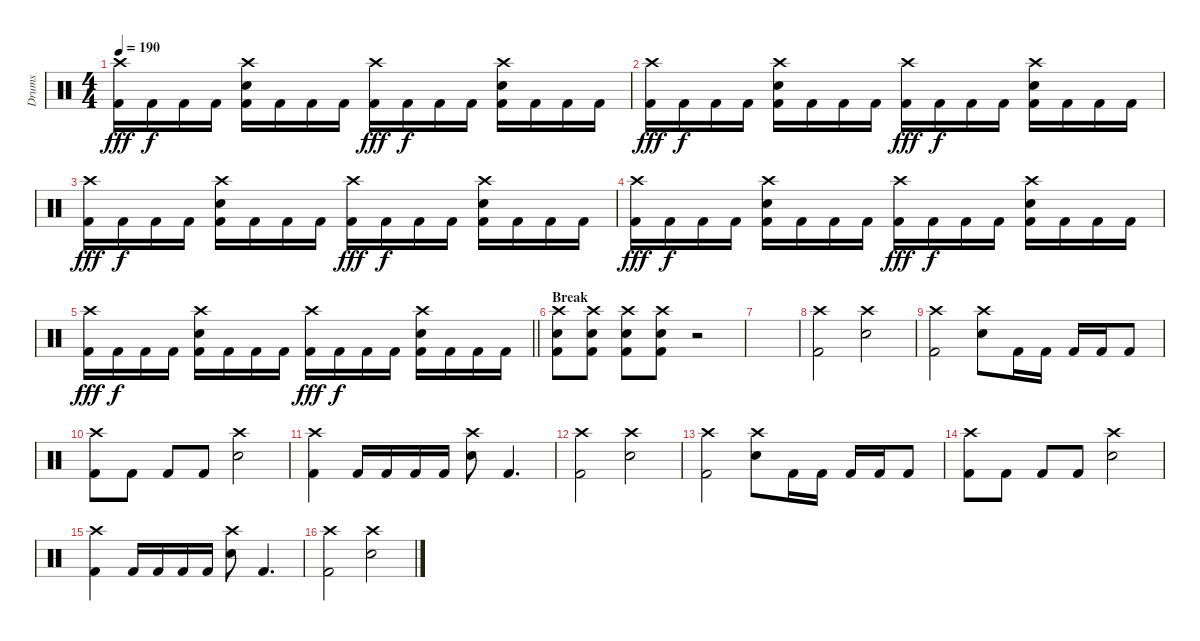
\track ("Drums" "Drums") {instrument percussion}
\staff {score}
\articulation defaults
\ts (4 4)
\tempo 190
\clef neutral
\ks c
("Crash high (hit)" "Kick (hit) 2").16{dy fff} "Kick (hit) 2".16{dy f} "Kick (hit) 2".16 "Kick (hit) 2".16 ("Crash high (hit)" "Electric Snare (hit)" "Kick (hit) 2").16 "Kick (hit) 2".16 "Kick (hit) 2".16 "Kick (hit) 2".16 ("Crash high (hit)" "Kick (hit) 2").16{dy fff} "Kick (hit) 2".16{dy f} "Kick (hit) 2".16 "Kick (hit) 2".16 ("Crash high (hit)" "Electric Snare (hit)" "Kick (hit) 2").16 "Kick (hit) 2".16 "Kick (hit) 2".16 "Kick (hit) 2".16 |
("Crash high (hit)" "Kick (hit) 2").16{dy fff} "Kick (hit) 2".16{dy f} "Kick (hit) 2".16 "Kick (hit) 2".16 ("Crash high (hit)" "Electric Snare (hit)" "Kick (hit) 2").16 "Kick (hit) 2".16 "Kick (hit) 2".16 "Kick (hit) 2".16 ("Crash high (hit)" "Kick (hit) 2").16{dy fff} "Kick (hit) 2".16{dy f} "Kick (hit) 2".16 "Kick (hit) 2".16 ("Crash high (hit)" "Electric Snare (hit)" "Kick (hit) 2").16 "Kick (hit) 2".16 "Kick (hit) 2".16 "Kick (hit) 2".16 |
("Crash high (hit)" "Kick (hit) 2").16{dy fff} "Kick (hit) 2".16{dy f} "Kick (hit) 2".16 "Kick (hit) 2".16 ("Crash high (hit)" "Electric Snare (hit)" "Kick (hit) 2").16 "Kick (hit) 2".16 "Kick (hit) 2".16 "Kick (hit) 2".16 ("Crash high (hit)" "Kick (hit) 2").16{dy fff} "Kick (hit) 2".16{dy f} "Kick (hit) 2".16 "Kick (hit) 2".16 ("Crash high (hit)" "Electric Snare (hit)" "Kick (hit) 2").16 "Kick (hit) 2".16 "Kick (hit) 2".16 "Kick (hit) 2".16 |
("Crash high (hit)" "Kick (hit) 2").16{dy fff} "Kick (hit) 2".16{dy f} "Kick (hit) 2".16 "Kick (hit) 2".16 ("Crash high (hit)" "Electric Snare (hit)" "Kick (hit) 2").16 "Kick (hit) 2".16 "Kick (hit) 2".16 "Kick (hit) 2".16 ("Crash high (hit)" "Kick (hit) 2").16{dy fff} "Kick (hit) 2".16{dy f} "Kick (hit) 2".16 "Kick (hit) 2".16 ("Crash high (hit)" "Electric Snare (hit)" "Kick (hit) 2").16 "Kick (hit) 2".16 "Kick (hit) 2".16 "Kick (hit) 2".16 |
\barLineRight lightlight
("Crash high (hit)" "Kick (hit) 2").16{dy fff} "Kick (hit) 2".16{dy f} "Kick (hit) 2".16 "Kick (hit) 2".16 ("Crash high (hit)" "Electric Snare (hit)" "Kick (hit) 2").16 "Kick (hit) 2".16 "Kick (hit) 2".16 "Kick (hit) 2".16 ("Crash high (hit)" "Kick (hit) 2").16{dy fff} "Kick (hit) 2".16{dy f} "Kick (hit) 2".16 "Kick (hit) 2".16 ("Crash high (hit)" "Electric Snare (hit)" "Kick (hit) 2").16 "Kick (hit) 2".16 "Kick (hit) 2".16 "Kick (hit) 2".16 |
\section ("" "Break")
("Crash high (hit)" "Electric Snare (hit)" "Kick (hit) 2").8 ("Crash high (hit)" "Electric Snare (hit)" "Kick (hit) 2").8 ("Crash high (hit)" "Electric Snare (hit)" "Kick (hit) 2").8 ("Crash high (hit)" "Electric Snare (hit)" "Kick (hit) 2").8 r.2 |
|
("Crash high (hit)" "Kick (hit) 2").2 ("Crash high (hit)" "Electric Snare (hit)").2 |
("Crash high (hit)" "Kick (hit) 2").2 ("Crash high (hit)" "Electric Snare (hit)").8 "Kick (hit) 2".16 "Kick (hit) 2".16 "Kick (hit) 2".16 "Kick (hit) 2".16 "Kick (hit) 2".8 |
("Crash high (hit)" "Kick (hit) 2").8 "Kick (hit) 2".8 "Kick (hit) 2".8 "Kick (hit) 2".8 ("Crash high (hit)" "Electric Snare (hit)").2 |
("Crash high (hit)" "Kick (hit) 2").4 "Kick (hit) 2".16 "Kick (hit) 2".16 "Kick (hit) 2".16 "Kick (hit) 2".16 ("Crash high (hit)" "Electric Snare (hit)").8 "Kick (hit) 2".4{d} |
("Crash high (hit)" "Kick (hit) 2").2 ("Crash high (hit)" "Electric Snare (hit)").2 |
("Crash high (hit)" "Kick (hit) 2").2 ("Crash high (hit)" "Electric Snare (hit)").8 "Kick (hit) 2".16 "Kick (hit) 2".16 "Kick (hit) 2".16 "Kick (hit) 2".16 "Kick (hit) 2".8 |
("Crash high (hit)" "Kick (hit) 2").8 "Kick (hit) 2".8 "Kick (hit) 2".8 "Kick (hit) 2".8 ("Crash high (hit)" "Electric Snare (hit)").2 |
("Crash high (hit)" "Kick (hit) 2").4 "Kick (hit) 2".16 "Kick (hit) 2".16 "Kick (hit) 2".16 "Kick (hit) 2".16 ("Crash high (hit)" "Electric Snare (hit)").8 "Kick (hit) 2".4{d} |
("Crash high (hit)" "Kick (hit) 2").2 ("Crash high (hit)" "Electric Snare (hit)").2
